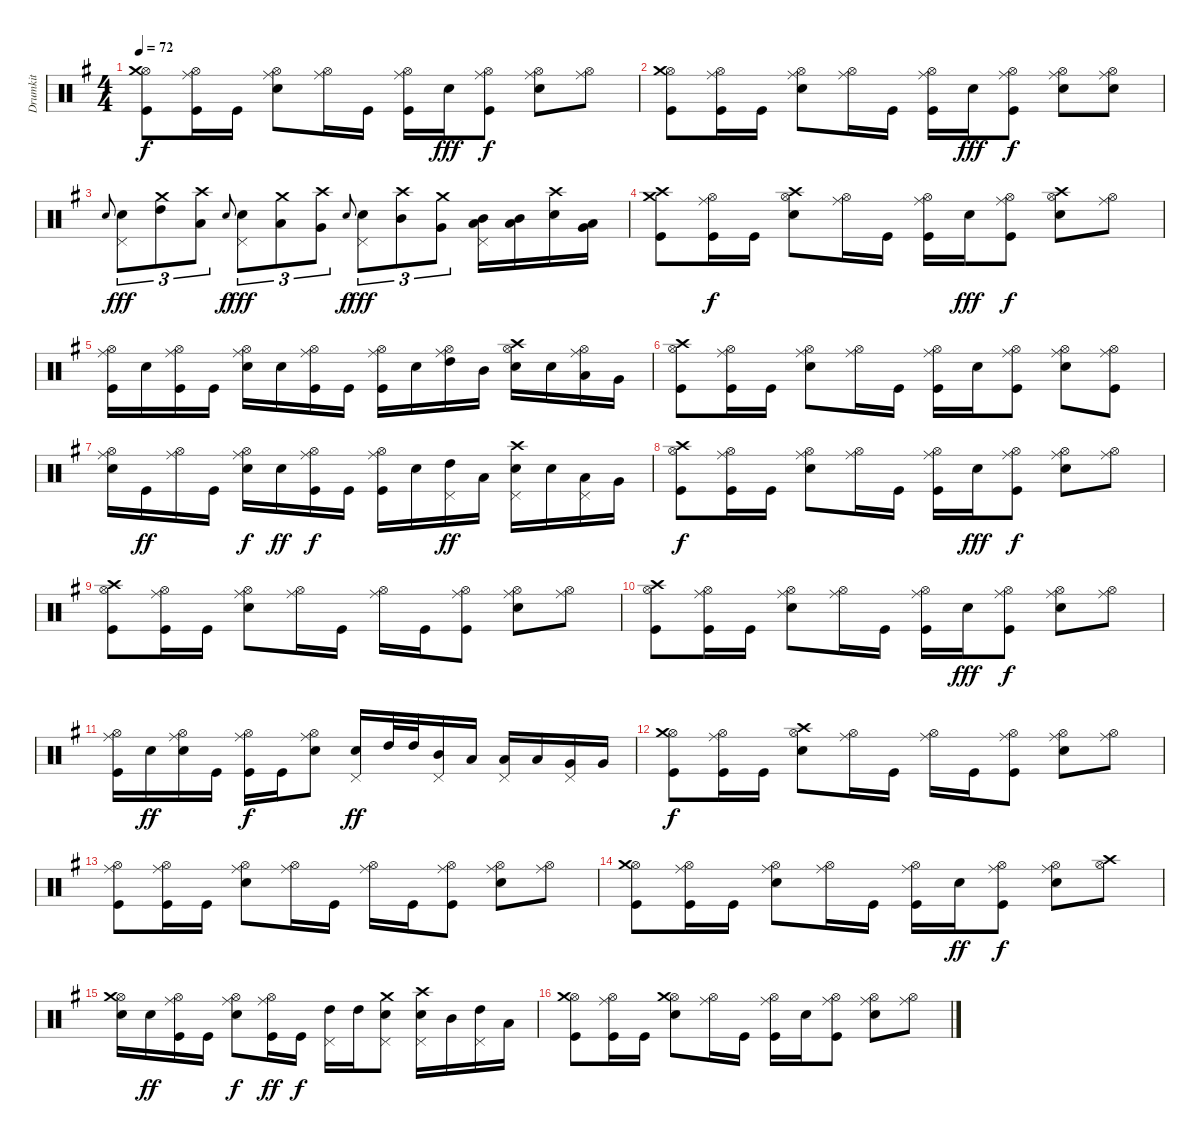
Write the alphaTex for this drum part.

\track ("Drumkit" "Drumkit") {instrument percussion}
\staff {score}
\articulation defaults
\ts (4 4)
\tempo 72
\clef neutral
\ks g
("Hi-Hat (open)" "Crash medium (hit)" "Kick (hit)").8{dy f} ("Hi-Hat (open)" "Ride (middle)" "Kick (hit)").16 "Kick (hit)".16 ("Hi-Hat (open)" "Ride (middle)" "Snare (hit) 2").8 ("Hi-Hat (open)" "Ride (middle)").16 "Kick (hit)".16 ("Hi-Hat (open)" "Ride (middle)" "Kick (hit)").16 "Snare (hit) 2".16{dy fff} ("Hi-Hat (open)" "Ride (middle)" "Kick (hit)").8{dy f} ("Hi-Hat (open)" "Ride (middle)" "Snare (hit) 2").8 ("Hi-Hat (open)" "Ride (middle)").8 |
("Hi-Hat (open)" "Crash medium (hit)" "Kick (hit)").8 ("Hi-Hat (open)" "Ride (middle)" "Kick (hit)").16 "Kick (hit)".16 ("Hi-Hat (open)" "Ride (middle)" "Snare (hit) 2").8 ("Hi-Hat (open)" "Ride (middle)").16 "Kick (hit)".16 ("Hi-Hat (open)" "Ride (middle)" "Kick (hit)").16 "Snare (hit) 2".16{dy fff} ("Hi-Hat (open)" "Ride (middle)" "Kick (hit)").8{dy f} ("Hi-Hat (open)" "Ride (middle)" "Snare (hit) 2").8 ("Hi-Hat (open)" "Ride (middle)" "Snare (hit) 2").8 |
"Snare (hit)".8{gr onbeat} ("Pedal Hi-Hat (hit)" "Snare (hit) 2").8{tu (3 2) dy fff} ("Crash medium (hit)" "High Tom (hit)").8{tu (3 2)} ("Crash high (hit)" "Low Tom (hit)").8{tu (3 2)} "Snare (hit)".8{gr onbeat dy f} ("Pedal Hi-Hat (hit)" "Snare (hit) 2").8{tu (3 2) dy fff} ("Crash medium (hit)" "Low Tom (hit)").8{tu (3 2)} ("Crash high (hit)" "Very Low Tom (hit)").8{tu (3 2)} "Snare (hit)".8{gr onbeat dy f} ("Pedal Hi-Hat (hit)" "Snare (hit) 2").8{tu (3 2) dy fff} ("Crash high (hit)" "Mid Tom (hit)").8{tu (3 2)} ("Crash medium (hit)" "Very Low Tom (hit)").8{tu (3 2)} ("Pedal Hi-Hat (hit)" "Low Tom (hit)" "Mid Tom (hit)").16 ("Low Tom (hit)" "Mid Tom (hit)").16 ("Crash high (hit)" "Snare (hit) 2").16 ("Very Low Tom (hit)" "Low Tom (hit)").16 |
("Crash high (hit)" "Crash medium (hit)" "Kick (hit)").8 ("Hi-Hat (open)" "Ride (middle)" "Kick (hit)").16{dy f} "Kick (hit)".16 ("Hi-Hat (open)" "Crash high (hit)" "Snare (hit) 2").8 ("Hi-Hat (open)" "Ride (middle)").16 "Kick (hit)".16 ("Hi-Hat (open)" "Ride (middle)" "Kick (hit)").16 "Snare (hit) 2".16{dy fff} ("Hi-Hat (open)" "Ride (middle)" "Kick (hit)").8{dy f} ("Hi-Hat (open)" "Crash high (hit)" "Snare (hit) 2").8 ("Hi-Hat (open)" "Ride (middle)").8 |
("Hi-Hat (open)" "Ride (middle)" "Kick (hit)").16 "Snare (hit) 2".16 ("Hi-Hat (open)" "Ride (middle)" "Kick (hit)").16 "Kick (hit)".16 ("Hi-Hat (open)" "Ride (middle)" "Snare (hit) 2").16 "Snare (hit) 2".16 ("Hi-Hat (open)" "Ride (middle)" "Kick (hit)").16 "Kick (hit)".16 ("Hi-Hat (open)" "Ride (middle)" "Kick (hit)").16 "Snare (hit) 2".16 ("Hi-Hat (open)" "Ride (middle)" "High Tom (hit)").16 "Mid Tom (hit)".16 ("Hi-Hat (open)" "Crash high (hit)" "Snare (hit) 2").16 "Snare (hit) 2".16 ("Hi-Hat (open)" "Ride (middle)" "Low Tom (hit)").16 "Very Low Tom (hit)".16 |
("Hi-Hat (open)" "Crash high (hit)" "Kick (hit)").8 ("Hi-Hat (open)" "Ride (middle)" "Kick (hit)").16 "Kick (hit)".16 ("Hi-Hat (open)" "Ride (middle)" "Snare (hit) 2").8 ("Hi-Hat (open)" "Ride (middle)").16 "Kick (hit)".16 ("Hi-Hat (open)" "Ride (middle)" "Kick (hit)").16 "Snare (hit) 2".16 ("Hi-Hat (open)" "Ride (middle)" "Kick (hit)").8 ("Hi-Hat (open)" "Ride (middle)" "Snare (hit) 2").8 ("Hi-Hat (open)" "Ride (middle)" "Kick (hit)").8 |
("Hi-Hat (open)" "Ride (middle)" "Snare (hit) 2").16 "Kick (hit)".16{dy ff} ("Hi-Hat (open)" "Ride (middle)").16 "Kick (hit)".16 ("Hi-Hat (open)" "Ride (middle)" "Snare (hit) 2").16{dy f} "Snare (hit) 2".16{dy ff} ("Hi-Hat (open)" "Ride (middle)" "Kick (hit)").16{dy f} "Kick (hit)".16 ("Hi-Hat (open)" "Ride (middle)" "Kick (hit)").16 "Snare (hit) 2".16 ("Pedal Hi-Hat (hit)" "High Tom (hit)").16{dy ff} "Low Tom (hit)".16 ("Pedal Hi-Hat (hit)" "Crash high (hit)" "Snare (hit) 2").16 "Snare (hit) 2".16 ("Pedal Hi-Hat (hit)" "Low Tom (hit)").16 "Very Low Tom (hit)".16 |
("Hi-Hat (open)" "Crash high (hit)" "Kick (hit)").8{dy f} ("Hi-Hat (open)" "Ride (middle)" "Kick (hit)").16 "Kick (hit)".16 ("Hi-Hat (open)" "Ride (middle)" "Snare (hit) 2").8 ("Hi-Hat (open)" "Ride (middle)").16 "Kick (hit)".16 ("Hi-Hat (open)" "Ride (middle)" "Kick (hit)").16 "Snare (hit) 2".16{dy fff} ("Hi-Hat (open)" "Ride (middle)" "Kick (hit)").8{dy f} ("Hi-Hat (open)" "Ride (middle)" "Snare (hit) 2").8 ("Hi-Hat (open)" "Ride (middle)").8 |
("Hi-Hat (open)" "Crash high (hit)" "Kick (hit)").8 ("Hi-Hat (open)" "Ride (middle)" "Kick (hit)").16 "Kick (hit)".16 ("Hi-Hat (open)" "Ride (middle)" "Snare (hit) 2").8 ("Hi-Hat (open)" "Ride (middle)").16 "Kick (hit)".16 ("Hi-Hat (open)" "Ride (middle)").16 "Kick (hit)".16 ("Hi-Hat (open)" "Ride (middle)" "Kick (hit)").8 ("Hi-Hat (open)" "Ride (middle)" "Snare (hit) 2").8 ("Hi-Hat (open)" "Ride (middle)").8 |
("Hi-Hat (open)" "Crash high (hit)" "Kick (hit)").8 ("Hi-Hat (open)" "Ride (middle)" "Kick (hit)").16 "Kick (hit)".16 ("Hi-Hat (open)" "Ride (middle)" "Snare (hit) 2").8 ("Hi-Hat (open)" "Ride (middle)").16 "Kick (hit)".16 ("Hi-Hat (open)" "Ride (middle)" "Kick (hit)").16 "Snare (hit) 2".16{dy fff} ("Hi-Hat (open)" "Ride (middle)" "Kick (hit)").8{dy f} ("Hi-Hat (open)" "Ride (middle)" "Snare (hit) 2").8 ("Hi-Hat (open)" "Ride (middle)").8 |
("Hi-Hat (open)" "Ride (middle)" "Kick (hit)").16 "Snare (hit) 2".16{dy ff} ("Hi-Hat (open)" "Ride (middle)" "Snare (hit) 2").16 "Kick (hit)".16 ("Hi-Hat (open)" "Ride (middle)" "Kick (hit)").16{dy f} "Kick (hit)".16 ("Hi-Hat (open)" "Ride (middle)" "Snare (hit) 2").8 ("Pedal Hi-Hat (hit)" "Snare (hit) 2").16{dy ff} "High Tom (hit)".32 "High Tom (hit)".32 ("Pedal Hi-Hat (hit)" "Mid Tom (hit)").16 "Low Tom (hit)".16 ("Pedal Hi-Hat (hit)" "Low Tom (hit)").16 "Low Tom (hit)".16 ("Pedal Hi-Hat (hit)" "Very Low Tom (hit)").16 "Very Low Tom (hit)".16 |
("Hi-Hat (open)" "Crash medium (hit)" "Kick (hit)").8{dy f} ("Hi-Hat (open)" "Ride (middle)" "Kick (hit)").16 "Kick (hit)".16 ("Hi-Hat (open)" "Crash high (hit)" "Snare (hit) 2").8 ("Hi-Hat (open)" "Ride (middle)").16 "Kick (hit)".16 ("Hi-Hat (open)" "Ride (middle)").16 "Kick (hit)".16 ("Hi-Hat (open)" "Ride (middle)" "Kick (hit)").8 ("Hi-Hat (open)" "Ride (middle)" "Snare (hit) 2").8 ("Hi-Hat (open)" "Ride (middle)").8 |
("Hi-Hat (open)" "Ride (middle)" "Kick (hit)").8 ("Hi-Hat (open)" "Ride (middle)" "Kick (hit)").16 "Kick (hit)".16 ("Hi-Hat (open)" "Ride (middle)" "Snare (hit) 2").8 ("Hi-Hat (open)" "Ride (middle)").16 "Kick (hit)".16 ("Hi-Hat (open)" "Ride (middle)").16 "Kick (hit)".16 ("Hi-Hat (open)" "Ride (middle)" "Kick (hit)").8 ("Hi-Hat (open)" "Ride (middle)" "Snare (hit) 2").8 ("Hi-Hat (open)" "Ride (middle)").8 |
("Hi-Hat (open)" "Crash medium (hit)" "Kick (hit)").8 ("Hi-Hat (open)" "Ride (middle)" "Kick (hit)").16 "Kick (hit)".16 ("Hi-Hat (open)" "Ride (middle)" "Snare (hit) 2").8 ("Hi-Hat (open)" "Ride (middle)").16 "Kick (hit)".16 ("Hi-Hat (open)" "Ride (middle)" "Kick (hit)").16 "Snare (hit) 2".16{dy ff} ("Hi-Hat (open)" "Ride (middle)" "Kick (hit)").8{dy f} ("Hi-Hat (open)" "Ride (middle)" "Snare (hit) 2").8 ("Hi-Hat (open)" "Crash high (hit)").8 |
("Hi-Hat (open)" "Crash medium (hit)" "Snare (hit) 2").16 "Snare (hit) 2".16{dy ff} ("Hi-Hat (open)" "Ride (middle)" "Kick (hit)").16 "Kick (hit)".16 ("Hi-Hat (open)" "Ride (middle)" "Snare (hit) 2").8{dy f} ("Hi-Hat (open)" "Ride (middle)" "Kick (hit)").16{dy ff} "Kick (hit)".16{dy f} ("Pedal Hi-Hat (hit)" "High Tom (hit)").16 "High Tom (hit)".16 ("Pedal Hi-Hat (hit)" "Crash medium (hit)" "Snare (hit) 2").8 ("Pedal Hi-Hat (hit)" "Crash high (hit)" "Snare (hit) 2").16 "Mid Tom (hit)".16 ("Pedal Hi-Hat (hit)" "High Tom (hit)").16 "Low Tom (hit)".16 |
("Hi-Hat (open)" "Crash medium (hit)" "Kick (hit)").8 ("Hi-Hat (open)" "Ride (middle)" "Kick (hit)").16 "Kick (hit)".16 ("Hi-Hat (open)" "Crash medium (hit)" "Snare (hit) 2").8 ("Hi-Hat (open)" "Ride (middle)").16 "Kick (hit)".16 ("Hi-Hat (open)" "Ride (middle)" "Kick (hit)").16 "Snare (hit) 2".16 ("Hi-Hat (open)" "Ride (middle)" "Kick (hit)").8 ("Hi-Hat (open)" "Ride (middle)" "Snare (hit) 2").8 ("Hi-Hat (open)" "Ride (middle)").8
